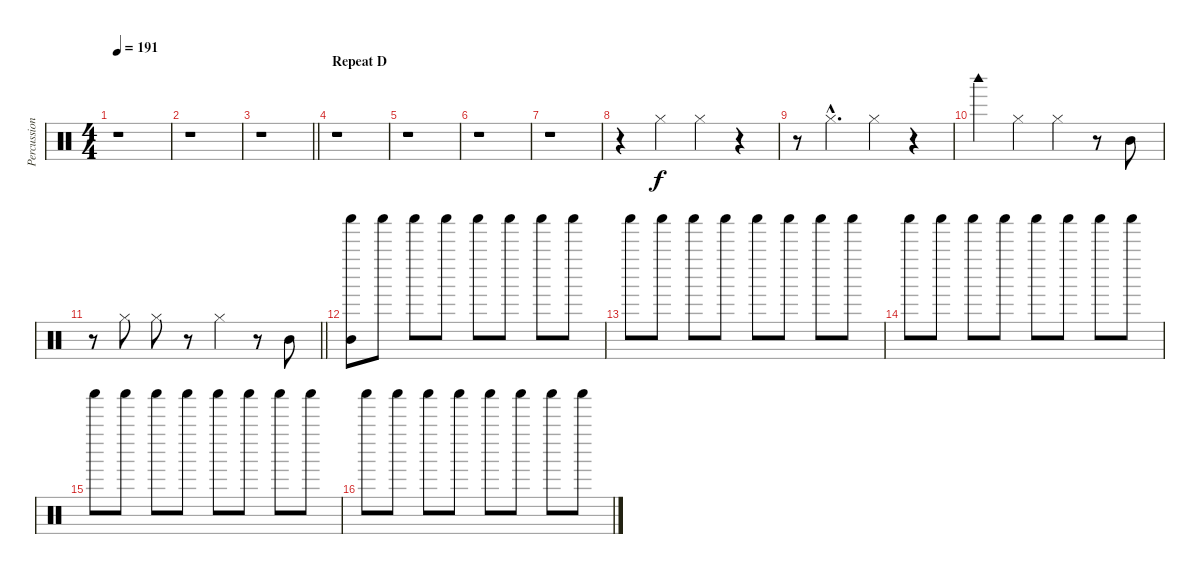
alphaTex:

\track ("Percussion" "Percussion") {instrument percussion}
\staff {score}
\articulation defaults
\ts (4 4)
\tempo 191
\clef neutral
\ks c
r.1{dy f} |
r.1 |
\barLineRight lightlight
r.1 |
\section ("" "Repeat D")
r.1 |
r.1 |
r.1 |
r.1 |
r.4 "Hi-Hat (closed)".4 "Hi-Hat (closed)".4 r.4 |
r.8 "Hi-Hat (closed)"{hac}.4{d} "Hi-Hat (closed)".4 r.4 |
"Woodblock high (hit)".4 "Hi-Hat (closed)".4 "Hi-Hat (closed)".4 r.8 "Mid Tom (hit)".8 |
\barLineRight lightlight
r.8 "Hi-Hat (closed)".8 "Hi-Hat (closed)".8 r.8 "Hi-Hat (closed)".4 r.8 "Mid Tom (hit)".8 |
("Mid Tom (hit)" "Shaker (hit)").8 "Shaker (hit)".8 "Shaker (hit)".8 "Shaker (hit)".8 "Shaker (hit)".8 "Shaker (hit)".8 "Shaker (hit)".8 "Shaker (hit)".8 |
"Shaker (hit)".8 "Shaker (hit)".8 "Shaker (hit)".8 "Shaker (hit)".8 "Shaker (hit)".8 "Shaker (hit)".8 "Shaker (hit)".8 "Shaker (hit)".8 |
"Shaker (hit)".8 "Shaker (hit)".8 "Shaker (hit)".8 "Shaker (hit)".8 "Shaker (hit)".8 "Shaker (hit)".8 "Shaker (hit)".8 "Shaker (hit)".8 |
"Shaker (hit)".8 "Shaker (hit)".8 "Shaker (hit)".8 "Shaker (hit)".8 "Shaker (hit)".8 "Shaker (hit)".8 "Shaker (hit)".8 "Shaker (hit)".8 |
"Shaker (hit)".8 "Shaker (hit)".8 "Shaker (hit)".8 "Shaker (hit)".8 "Shaker (hit)".8 "Shaker (hit)".8 "Shaker (hit)".8 "Shaker (hit)".8
